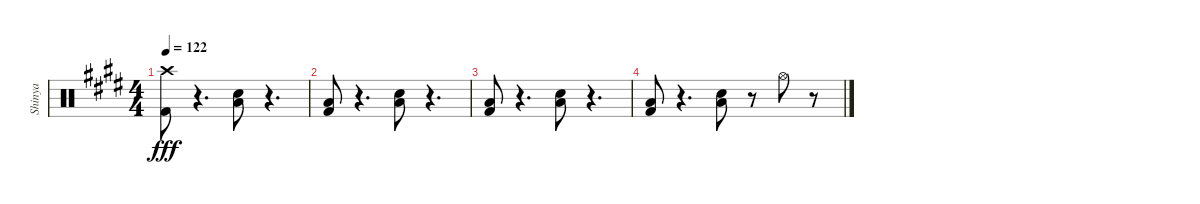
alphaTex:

\track ("Shinya" "Shinya") {instrument percussion}
\staff {score}
\articulation defaults
\ts (4 4)
\tempo 122
\clef neutral
\ks c#minor
("Kick (hit) 2" "Crash high (hit)").8{dy fff} r.4{d} ("Snare (hit) 2" "Low Tom (hit)").8 r.4{d} |
("Kick (hit) 2" "Low Tom (hit)").8 r.4{d} ("Snare (hit) 2" "Low Tom (hit)").8 r.4{d} |
("Kick (hit) 2" "Low Tom (hit)").8 r.4{d} ("Snare (hit) 2" "Low Tom (hit)").8 r.4{d} |
("Kick (hit) 2" "Low Tom (hit)").8 r.4{d} ("Snare (hit) 2" "Low Tom (hit)").8 r.8 "Hi-Hat (open)".8 r.8
